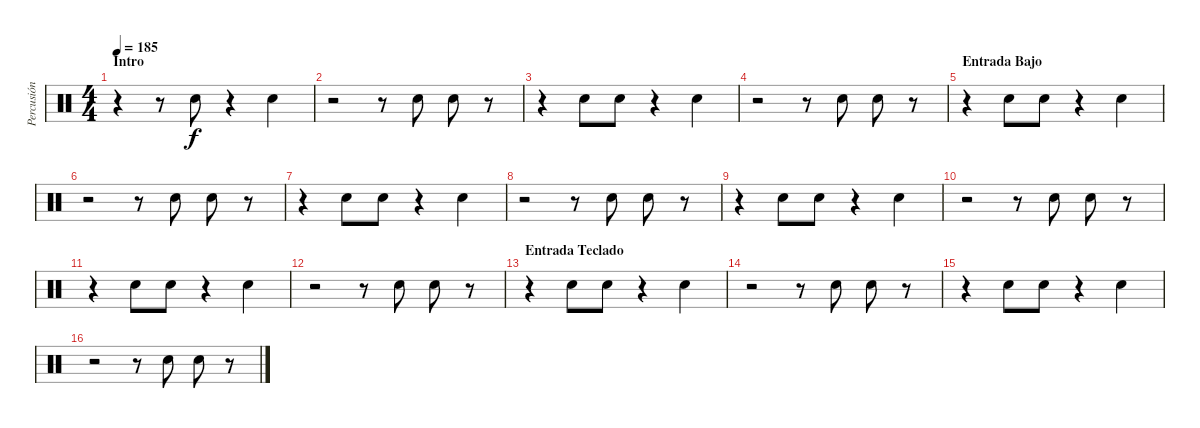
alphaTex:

\track ("Percusión" "Percusión") {instrument percussion}
\staff {score}
\articulation defaults
\ts (4 4)
\section ("" "Intro")
\tempo 185
\clef neutral
\ks c
r.4{dy f} r.8 "Hand Clap (hit)".8 r.4 "Hand Clap (hit)".4 |
r.2 r.8 "Hand Clap (hit)".8 "Hand Clap (hit)".8 r.8 |
r.4 "Hand Clap (hit)".8 "Hand Clap (hit)".8 r.4 "Hand Clap (hit)".4 |
r.2 r.8 "Hand Clap (hit)".8 "Hand Clap (hit)".8 r.8 |
\section ("" "Entrada Bajo")
r.4 "Hand Clap (hit)".8 "Hand Clap (hit)".8 r.4 "Hand Clap (hit)".4 |
r.2 r.8 "Hand Clap (hit)".8 "Hand Clap (hit)".8 r.8 |
r.4 "Hand Clap (hit)".8 "Hand Clap (hit)".8 r.4 "Hand Clap (hit)".4 |
r.2 r.8 "Hand Clap (hit)".8 "Hand Clap (hit)".8 r.8 |
r.4 "Hand Clap (hit)".8 "Hand Clap (hit)".8 r.4 "Hand Clap (hit)".4 |
r.2 r.8 "Hand Clap (hit)".8 "Hand Clap (hit)".8 r.8 |
r.4 "Hand Clap (hit)".8 "Hand Clap (hit)".8 r.4 "Hand Clap (hit)".4 |
r.2 r.8 "Hand Clap (hit)".8 "Hand Clap (hit)".8 r.8 |
\section ("" "Entrada Teclado")
r.4 "Hand Clap (hit)".8 "Hand Clap (hit)".8 r.4 "Hand Clap (hit)".4 |
r.2 r.8 "Hand Clap (hit)".8 "Hand Clap (hit)".8 r.8 |
r.4 "Hand Clap (hit)".8 "Hand Clap (hit)".8 r.4 "Hand Clap (hit)".4 |
r.2 r.8 "Hand Clap (hit)".8 "Hand Clap (hit)".8 r.8
